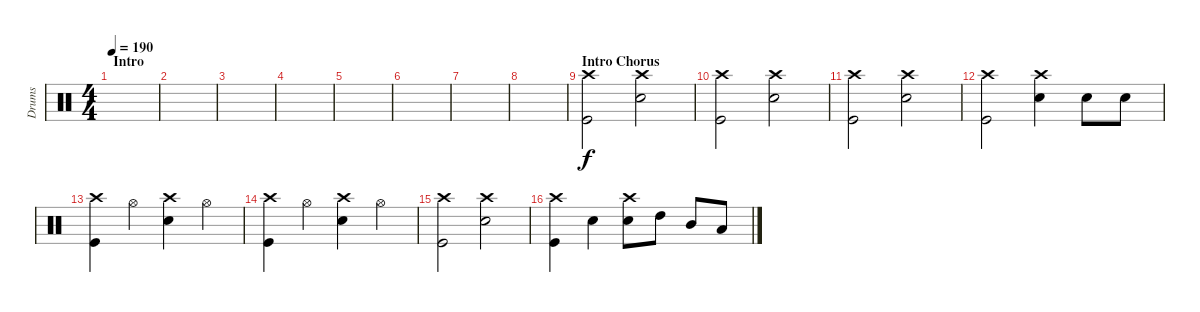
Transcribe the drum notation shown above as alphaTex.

\track ("Drums" "Drums") {instrument percussion}
\staff {score}
\articulation defaults
\ts (4 4)
\section ("" "Intro")
\tempo 190
\clef neutral
\ks c
|
|
|
|
|
|
|
|
\section ("" "Intro Chorus")
("Crash high (hit)" "Kick (hit)").2 ("Crash high (hit)" "Snare (hit) 2").2 |
("Crash high (hit)" "Kick (hit)").2 ("Crash high (hit)" "Snare (hit) 2").2 |
("Crash high (hit)" "Kick (hit)").2 ("Crash high (hit)" "Snare (hit) 2").2 |
("Crash high (hit)" "Kick (hit)").2 ("Crash high (hit)" "Snare (hit) 2").4 "Snare (hit) 2".8 "Snare (hit) 2".8 |
("Crash high (hit)" "Kick (hit)").4 "Hi-Hat (open)".4 ("Crash high (hit)" "Snare (hit) 2").4 "Hi-Hat (open)".4 |
("Crash high (hit)" "Kick (hit)").4 "Hi-Hat (open)".4 ("Crash high (hit)" "Snare (hit) 2").4 "Hi-Hat (open)".4 |
("Crash high (hit)" "Kick (hit)").2 ("Crash high (hit)" "Snare (hit) 2").2 |
("Crash high (hit)" "Kick (hit)").4 "Snare (hit) 2".4 ("Crash high (hit)" "Snare (hit) 2").8 "High Tom (hit)".8 "Mid Tom (hit)".8 "Low Tom (hit)".8
